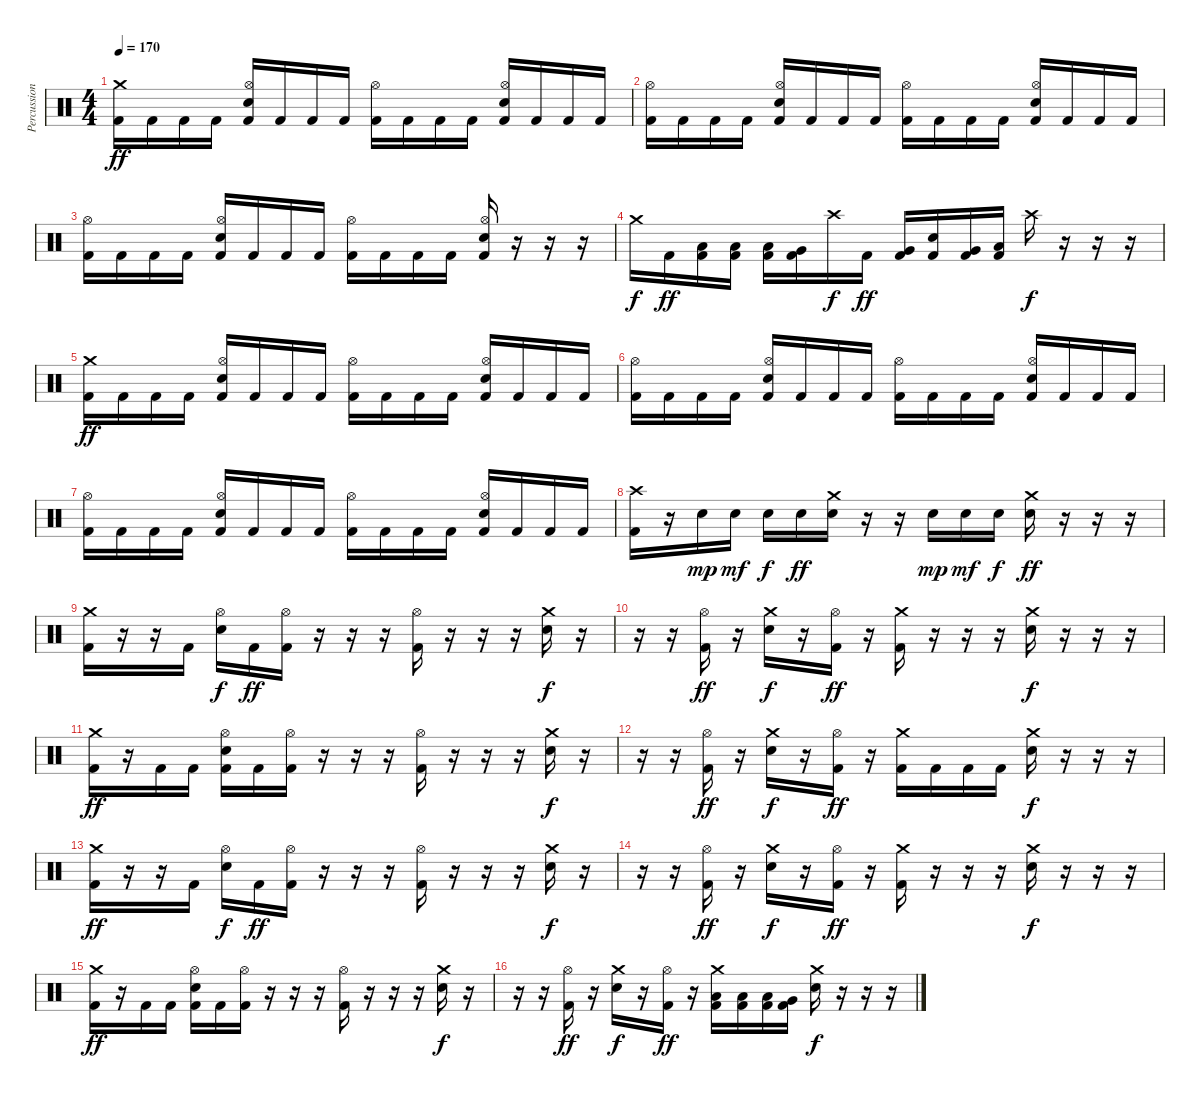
\track ("Percussion" "Percussion") {instrument percussion}
\staff {score}
\articulation defaults
\ts (4 4)
\tempo 170
\clef neutral
\ks c
("Crash medium (hit)" "Kick (hit) 2").16{dy ff} "Kick (hit) 2".16 "Kick (hit) 2".16 "Kick (hit) 2".16 ("Hi-Hat (open)" "Electric Snare (hit)" "Kick (hit) 2").16 "Kick (hit) 2".16 "Kick (hit) 2".16 "Kick (hit) 2".16 ("Hi-Hat (open)" "Kick (hit) 2").16 "Kick (hit) 2".16 "Kick (hit) 2".16 "Kick (hit) 2".16 ("Hi-Hat (open)" "Electric Snare (hit)" "Kick (hit) 2").16 "Kick (hit) 2".16 "Kick (hit) 2".16 "Kick (hit) 2".16 |
("Hi-Hat (open)" "Kick (hit) 2").16 "Kick (hit) 2".16 "Kick (hit) 2".16 "Kick (hit) 2".16 ("Hi-Hat (open)" "Electric Snare (hit)" "Kick (hit) 2").16 "Kick (hit) 2".16 "Kick (hit) 2".16 "Kick (hit) 2".16 ("Hi-Hat (open)" "Kick (hit) 2").16 "Kick (hit) 2".16 "Kick (hit) 2".16 "Kick (hit) 2".16 ("Hi-Hat (open)" "Electric Snare (hit)" "Kick (hit) 2").16 "Kick (hit) 2".16 "Kick (hit) 2".16 "Kick (hit) 2".16 |
("Hi-Hat (open)" "Kick (hit) 2").16 "Kick (hit) 2".16 "Kick (hit) 2".16 "Kick (hit) 2".16 ("Hi-Hat (open)" "Electric Snare (hit)" "Kick (hit) 2").16 "Kick (hit) 2".16 "Kick (hit) 2".16 "Kick (hit) 2".16 ("Hi-Hat (open)" "Kick (hit) 2").16 "Kick (hit) 2".16 "Kick (hit) 2".16 "Kick (hit) 2".16 ("Hi-Hat (open)" "Electric Snare (hit)" "Kick (hit) 2").16 r.16 r.16 r.16 |
"Crash medium (hit)".16{dy f} "Kick (hit) 2".16{dy ff} ("Low Tom (hit)" "Kick (hit) 2").16 ("Low Tom (hit)" "Kick (hit) 2").16 ("Low Tom (hit)" "Kick (hit) 2").16 ("Very Low Tom (hit)" "Kick (hit) 2").16 "Crash high (hit)".16{dy f} "Kick (hit) 2".16{dy ff} ("Very Low Tom (hit)" "Kick (hit) 2").16 ("Metronome (bell)" "Kick (hit) 2").16 ("Very Low Tom (hit)" "Kick (hit) 2").16 ("Low Floor Tom (hit)" "Kick (hit) 2").16 "Crash high (hit)".16{dy f} r.16 r.16 r.16 |
("Crash medium (hit)" "Kick (hit) 2").16{dy ff} "Kick (hit) 2".16 "Kick (hit) 2".16 "Kick (hit) 2".16 ("Hi-Hat (open)" "Electric Snare (hit)" "Kick (hit) 2").16 "Kick (hit) 2".16 "Kick (hit) 2".16 "Kick (hit) 2".16 ("Hi-Hat (open)" "Kick (hit) 2").16 "Kick (hit) 2".16 "Kick (hit) 2".16 "Kick (hit) 2".16 ("Hi-Hat (open)" "Electric Snare (hit)" "Kick (hit) 2").16 "Kick (hit) 2".16 "Kick (hit) 2".16 "Kick (hit) 2".16 |
("Hi-Hat (open)" "Kick (hit) 2").16 "Kick (hit) 2".16 "Kick (hit) 2".16 "Kick (hit) 2".16 ("Hi-Hat (open)" "Electric Snare (hit)" "Kick (hit) 2").16 "Kick (hit) 2".16 "Kick (hit) 2".16 "Kick (hit) 2".16 ("Hi-Hat (open)" "Kick (hit) 2").16 "Kick (hit) 2".16 "Kick (hit) 2".16 "Kick (hit) 2".16 ("Hi-Hat (open)" "Electric Snare (hit)" "Kick (hit) 2").16 "Kick (hit) 2".16 "Kick (hit) 2".16 "Kick (hit) 2".16 |
("Hi-Hat (open)" "Kick (hit) 2").16 "Kick (hit) 2".16 "Kick (hit) 2".16 "Kick (hit) 2".16 ("Hi-Hat (open)" "Electric Snare (hit)" "Kick (hit) 2").16 "Kick (hit) 2".16 "Kick (hit) 2".16 "Kick (hit) 2".16 ("Hi-Hat (open)" "Kick (hit) 2").16 "Kick (hit) 2".16 "Kick (hit) 2".16 "Kick (hit) 2".16 ("Hi-Hat (open)" "Electric Snare (hit)" "Kick (hit) 2").16 "Kick (hit) 2".16 "Kick (hit) 2".16 "Kick (hit) 2".16 |
("Crash high (hit)" "Kick (hit) 2").16 r.16 "Electric Snare (hit)".16{dy mp} "Electric Snare (hit)".16{dy mf} "Electric Snare (hit)".16{dy f} "Electric Snare (hit)".16{dy ff} ("Crash medium (hit)" "Electric Snare (hit)").16 r.16 r.16 "Electric Snare (hit)".16{dy mp} "Electric Snare (hit)".16{dy mf} "Electric Snare (hit)".16{dy f} ("Crash medium (hit)" "Electric Snare (hit)").16{dy ff} r.16 r.16 r.16 |
("Crash medium (hit)" "Kick (hit) 2").16 r.16 r.16 "Kick (hit) 2".16 ("Hi-Hat (open)" "Electric Snare (hit)").16{dy f} "Kick (hit) 2".16{dy ff} ("Hi-Hat (open)" "Kick (hit) 2").16 r.16 r.16 r.16 ("Hi-Hat (open)" "Kick (hit) 2").16 r.16 r.16 r.16 ("Crash medium (hit)" "Electric Snare (hit)").16{dy f} r.16 |
r.16 r.16 ("Hi-Hat (open)" "Kick (hit) 2").16{dy ff} r.16 ("Crash medium (hit)" "Electric Snare (hit)").16{dy f} r.16 ("Hi-Hat (open)" "Kick (hit) 2").16{dy ff} r.16 ("Crash medium (hit)" "Kick (hit) 2").16 r.16 r.16 r.16 ("Crash medium (hit)" "Electric Snare (hit)").16{dy f} r.16 r.16 r.16 |
("Crash medium (hit)" "Kick (hit) 2").16{dy ff} r.16 "Kick (hit) 2".16 "Kick (hit) 2".16 ("Hi-Hat (open)" "Electric Snare (hit)" "Kick (hit) 2").16 "Kick (hit) 2".16 ("Hi-Hat (open)" "Kick (hit) 2").16 r.16 r.16 r.16 ("Hi-Hat (open)" "Kick (hit) 2").16 r.16 r.16 r.16 ("Crash medium (hit)" "Electric Snare (hit)").16{dy f} r.16 |
r.16 r.16 ("Hi-Hat (open)" "Kick (hit) 2").16{dy ff} r.16 ("Crash medium (hit)" "Electric Snare (hit)").16{dy f} r.16 ("Hi-Hat (open)" "Kick (hit) 2").16{dy ff} r.16 ("Crash medium (hit)" "Kick (hit) 2").16 "Kick (hit) 2".16 "Kick (hit) 2".16 "Kick (hit) 2".16 ("Crash medium (hit)" "Electric Snare (hit)").16{dy f} r.16 r.16 r.16 |
("Crash medium (hit)" "Kick (hit) 2").16{dy ff} r.16 r.16 "Kick (hit) 2".16 ("Hi-Hat (open)" "Electric Snare (hit)").16{dy f} "Kick (hit) 2".16{dy ff} ("Hi-Hat (open)" "Kick (hit) 2").16 r.16 r.16 r.16 ("Hi-Hat (open)" "Kick (hit) 2").16 r.16 r.16 r.16 ("Crash medium (hit)" "Electric Snare (hit)").16{dy f} r.16 |
r.16 r.16 ("Hi-Hat (open)" "Kick (hit) 2").16{dy ff} r.16 ("Crash medium (hit)" "Electric Snare (hit)").16{dy f} r.16 ("Hi-Hat (open)" "Kick (hit) 2").16{dy ff} r.16 ("Crash medium (hit)" "Kick (hit) 2").16 r.16 r.16 r.16 ("Crash medium (hit)" "Electric Snare (hit)").16{dy f} r.16 r.16 r.16 |
("Crash medium (hit)" "Kick (hit) 2").16{dy ff} r.16 "Kick (hit) 2".16 "Kick (hit) 2".16 ("Hi-Hat (open)" "Electric Snare (hit)" "Kick (hit) 2").16 "Kick (hit) 2".16 ("Hi-Hat (open)" "Kick (hit) 2").16 r.16 r.16 r.16 ("Hi-Hat (open)" "Kick (hit) 2").16 r.16 r.16 r.16 ("Crash medium (hit)" "Electric Snare (hit)").16{dy f} r.16 |
r.16 r.16 ("Hi-Hat (open)" "Kick (hit) 2").16{dy ff} r.16 ("Crash medium (hit)" "Electric Snare (hit)").16{dy f} r.16 ("Hi-Hat (open)" "Kick (hit) 2").16{dy ff} r.16 ("Crash medium (hit)" "Low Tom (hit)" "Kick (hit) 2").16 ("Low Tom (hit)" "Kick (hit) 2").16 ("Low Tom (hit)" "Kick (hit) 2").16 ("Very Low Tom (hit)" "Kick (hit) 2").16 ("Crash medium (hit)" "Electric Snare (hit)").16{dy f} r.16 r.16 r.16
